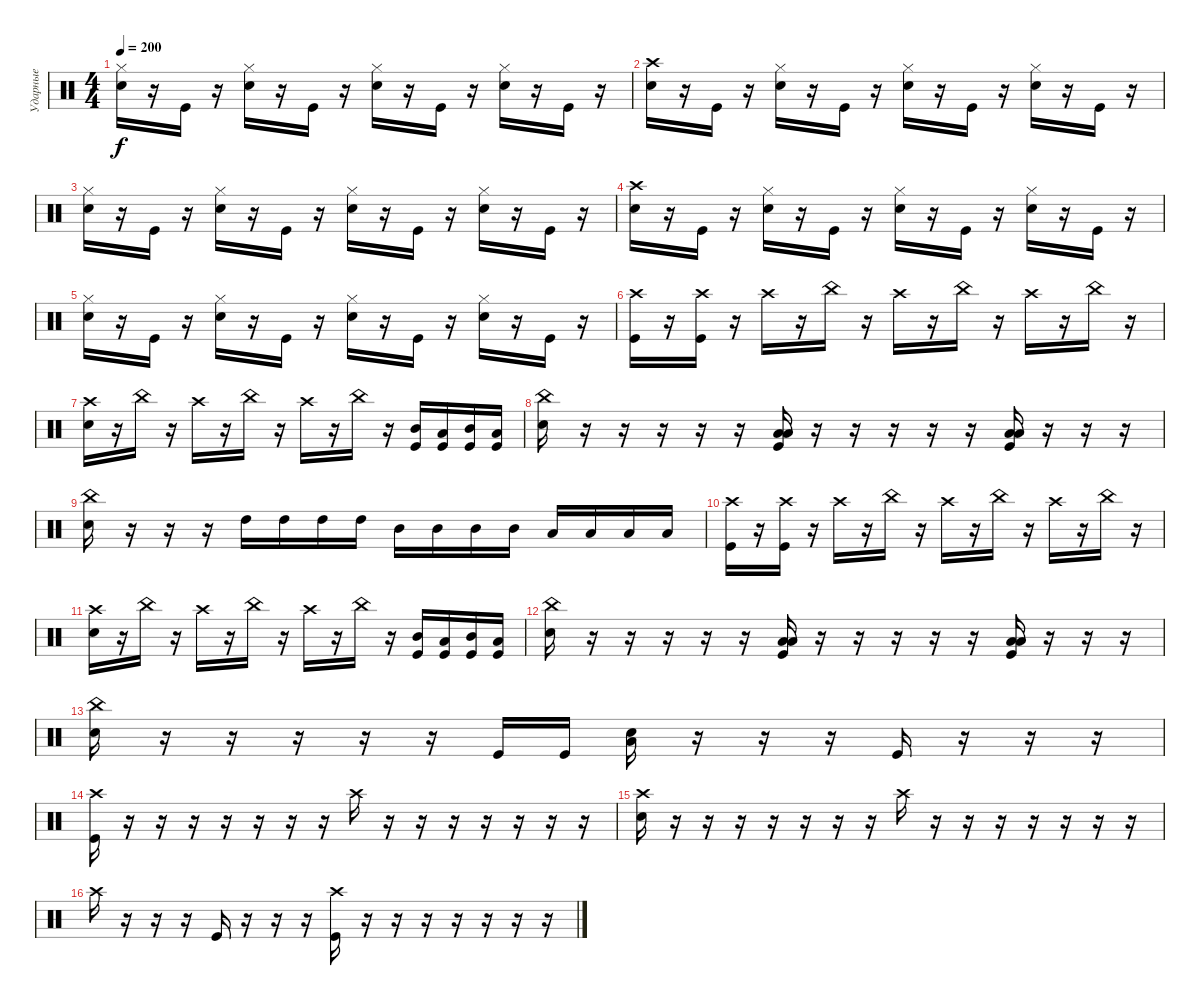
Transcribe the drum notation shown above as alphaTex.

\track ("Ударные" "Ударные") {instrument percussion}
\staff {score}
\articulation defaults
\ts (4 4)
\tempo 200
\clef neutral
\ks c
("Hi-Hat (closed)" "Electric Snare (hit)").16{dy f} r.16 "Kick (hit)".16 r.16 ("Hi-Hat (closed)" "Electric Snare (hit)").16 r.16 "Kick (hit)".16 r.16 ("Hi-Hat (closed)" "Electric Snare (hit)").16 r.16 "Kick (hit)".16 r.16 ("Hi-Hat (closed)" "Electric Snare (hit)").16 r.16 "Kick (hit)".16 r.16 |
("Crash high (hit)" "Electric Snare (hit)").16 r.16 "Kick (hit)".16 r.16 ("Hi-Hat (closed)" "Electric Snare (hit)").16 r.16 "Kick (hit)".16 r.16 ("Hi-Hat (closed)" "Electric Snare (hit)").16 r.16 "Kick (hit)".16 r.16 ("Hi-Hat (closed)" "Electric Snare (hit)").16 r.16 "Kick (hit)".16 r.16 |
("Hi-Hat (closed)" "Electric Snare (hit)").16 r.16 "Kick (hit)".16 r.16 ("Hi-Hat (closed)" "Electric Snare (hit)").16 r.16 "Kick (hit)".16 r.16 ("Hi-Hat (closed)" "Electric Snare (hit)").16 r.16 "Kick (hit)".16 r.16 ("Hi-Hat (closed)" "Electric Snare (hit)").16 r.16 "Kick (hit)".16 r.16 |
("Crash high (hit)" "Electric Snare (hit)").16 r.16 "Kick (hit)".16 r.16 ("Hi-Hat (closed)" "Electric Snare (hit)").16 r.16 "Kick (hit)".16 r.16 ("Hi-Hat (closed)" "Electric Snare (hit)").16 r.16 "Kick (hit)".16 r.16 ("Hi-Hat (closed)" "Electric Snare (hit)").16 r.16 "Kick (hit)".16 r.16 |
("Hi-Hat (closed)" "Electric Snare (hit)").16 r.16 "Kick (hit)".16 r.16 ("Hi-Hat (closed)" "Electric Snare (hit)").16 r.16 "Kick (hit)".16 r.16 ("Hi-Hat (closed)" "Electric Snare (hit)").16 r.16 "Kick (hit)".16 r.16 ("Hi-Hat (closed)" "Electric Snare (hit)").16 r.16 "Kick (hit)".16 r.16 |
("Crash high (hit)" "Kick (hit)").16 r.16 ("Crash high (hit)" "Kick (hit)").16 r.16 "Crash high (hit)".16 r.16 "China (hit)".16 r.16 "Crash high (hit)".16 r.16 "China (hit)".16 r.16 "Crash high (hit)".16 r.16 "China (hit)".16 r.16 |
("Crash high (hit)" "Electric Snare (hit)").16 r.16 "China (hit)".16 r.16 "Crash high (hit)".16 r.16 "China (hit)".16 r.16 "Crash high (hit)".16 r.16 "China (hit)".16 r.16 ("Kick (hit)" "Mid Tom (hit)").16 ("Kick (hit)" "Low Tom (hit)").16 ("Kick (hit)" "Mid Tom (hit)").16 ("Kick (hit)" "Low Tom (hit)").16 |
("China (hit)" "Electric Snare (hit)").16 r.16 r.16 r.16 r.16 r.16 ("Low Floor Tom (hit)" "Kick (hit)" "Low Tom (hit)").16 r.16 r.16 r.16 r.16 r.16 ("Low Floor Tom (hit)" "Kick (hit)" "Low Tom (hit)").16 r.16 r.16 r.16 |
("China (hit)" "Electric Snare (hit)").16 r.16 r.16 r.16 "High Tom (hit)".16 "High Tom (hit)".16 "High Tom (hit)".16 "High Tom (hit)".16 "Mid Tom (hit)".16 "Mid Tom (hit)".16 "Mid Tom (hit)".16 "Mid Tom (hit)".16 "Low Floor Tom (hit)".16 "Low Floor Tom (hit)".16 "Low Floor Tom (hit)".16 "Low Floor Tom (hit)".16 |
("Crash high (hit)" "Kick (hit)").16 r.16 ("Crash high (hit)" "Kick (hit)").16 r.16 "Crash high (hit)".16 r.16 "China (hit)".16 r.16 "Crash high (hit)".16 r.16 "China (hit)".16 r.16 "Crash high (hit)".16 r.16 "China (hit)".16 r.16 |
("Crash high (hit)" "Electric Snare (hit)").16 r.16 "China (hit)".16 r.16 "Crash high (hit)".16 r.16 "China (hit)".16 r.16 "Crash high (hit)".16 r.16 "China (hit)".16 r.16 ("Kick (hit)" "Mid Tom (hit)").16 ("Kick (hit)" "Low Tom (hit)").16 ("Kick (hit)" "Mid Tom (hit)").16 ("Kick (hit)" "Low Tom (hit)").16 |
("China (hit)" "Electric Snare (hit)").16 r.16 r.16 r.16 r.16 r.16 ("Low Floor Tom (hit)" "Kick (hit)" "Low Tom (hit)").16 r.16 r.16 r.16 r.16 r.16 ("Low Floor Tom (hit)" "Kick (hit)" "Low Tom (hit)").16 r.16 r.16 r.16 |
("China (hit)" "Electric Snare (hit)").16 r.16 r.16 r.16 r.16 r.16 "Kick (hit)".16 "Kick (hit)".16 ("Low Floor Tom (hit)" "Electric Snare (hit)").16 r.16 r.16 r.16 "Kick (hit)".16 r.16 r.16 r.16 |
("Crash high (hit)" "Kick (hit)").16 r.16 r.16 r.16 r.16 r.16 r.16 r.16 "Crash high (hit)".16 r.16 r.16 r.16 r.16 r.16 r.16 r.16 |
("Crash high (hit)" "Electric Snare (hit)").16 r.16 r.16 r.16 r.16 r.16 r.16 r.16 "Crash high (hit)".16 r.16 r.16 r.16 r.16 r.16 r.16 r.16 |
"Crash high (hit)".16 r.16 r.16 r.16 "Kick (hit)".16 r.16 r.16 r.16 ("Crash high (hit)" "Kick (hit)").16 r.16 r.16 r.16 r.16 r.16 r.16 r.16
